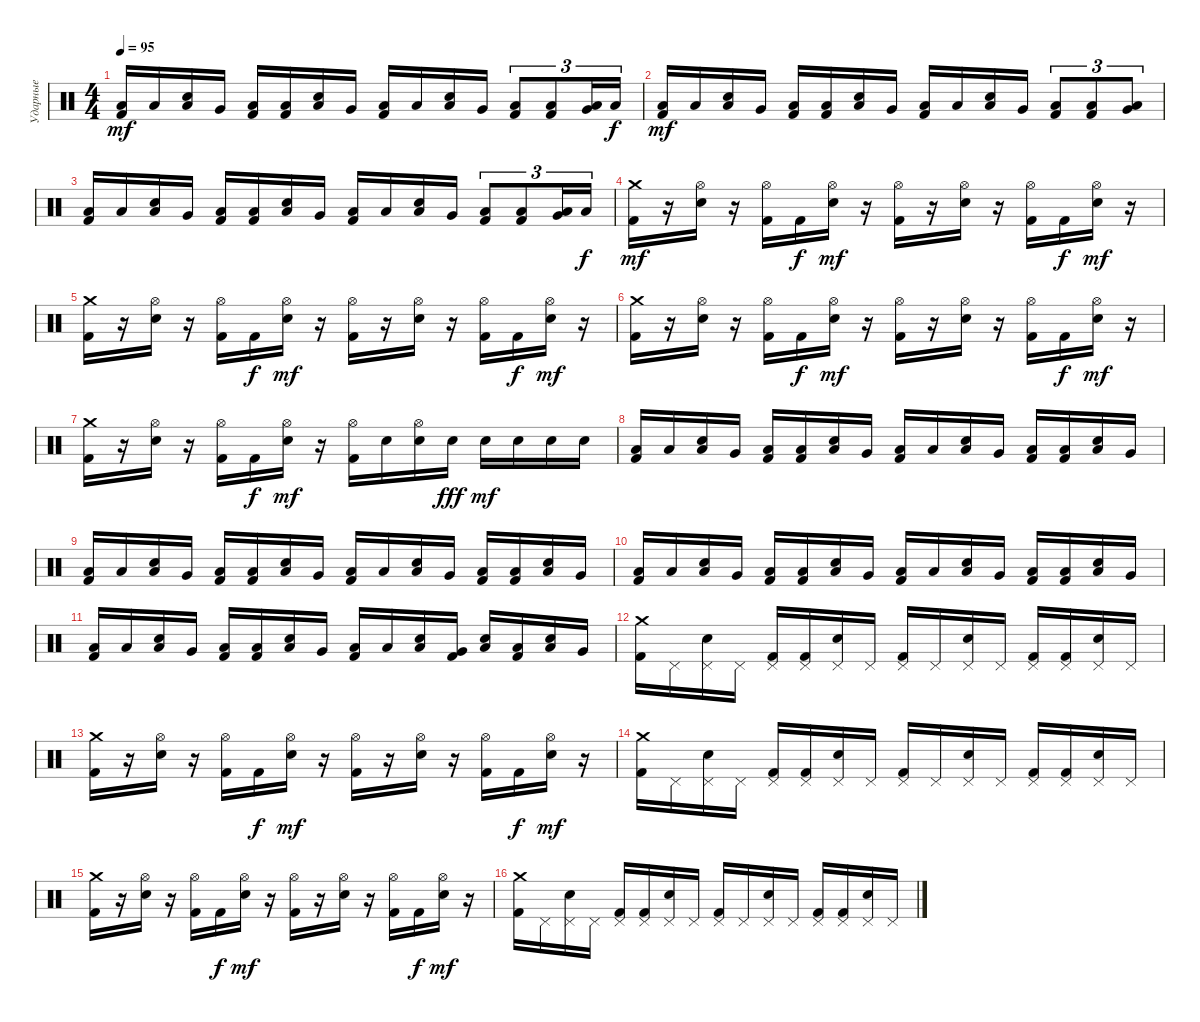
\track ("Ударные" "Ударные") {instrument percussion}
\staff {score}
\articulation defaults
\ts (4 4)
\tempo 95
\clef neutral
\ks c
("Low Floor Tom (hit)" "Kick (hit) 2").16{dy mf} "Low Floor Tom (hit)".16 ("Low Floor Tom (hit)" "Electric Snare (hit)").16 "Very Low Tom (hit)".16 ("Low Floor Tom (hit)" "Kick (hit) 2").16 ("Low Floor Tom (hit)" "Kick (hit) 2").16 ("Low Floor Tom (hit)" "Electric Snare (hit)").16 "Very Low Tom (hit)".16 ("Low Floor Tom (hit)" "Kick (hit) 2").16 "Low Floor Tom (hit)".16 ("Low Floor Tom (hit)" "Electric Snare (hit)").16 "Very Low Tom (hit)".16 ("Low Floor Tom (hit)" "Kick (hit) 2").8{tu (3 2)} ("Low Floor Tom (hit)" "Kick (hit) 2").8{tu (3 2)} ("Low Floor Tom (hit)" "Very Low Tom (hit)").16{tu (3 2)} "Low Floor Tom (hit)".16{tu (3 2) dy f} |
("Low Floor Tom (hit)" "Kick (hit) 2").16{dy mf} "Low Floor Tom (hit)".16 ("Low Floor Tom (hit)" "Electric Snare (hit)").16 "Very Low Tom (hit)".16 ("Low Floor Tom (hit)" "Kick (hit) 2").16 ("Low Floor Tom (hit)" "Kick (hit) 2").16 ("Low Floor Tom (hit)" "Electric Snare (hit)").16 "Very Low Tom (hit)".16 ("Low Floor Tom (hit)" "Kick (hit) 2").16 "Low Floor Tom (hit)".16 ("Low Floor Tom (hit)" "Electric Snare (hit)").16 "Very Low Tom (hit)".16 ("Low Floor Tom (hit)" "Kick (hit) 2").8{tu (3 2)} ("Low Floor Tom (hit)" "Kick (hit) 2").8{tu (3 2)} ("Low Floor Tom (hit)" "Very Low Tom (hit)").8{tu (3 2)} |
("Low Floor Tom (hit)" "Kick (hit) 2").16 "Low Floor Tom (hit)".16 ("Low Floor Tom (hit)" "Electric Snare (hit)").16 "Very Low Tom (hit)".16 ("Low Floor Tom (hit)" "Kick (hit) 2").16 ("Low Floor Tom (hit)" "Kick (hit) 2").16 ("Low Floor Tom (hit)" "Electric Snare (hit)").16 "Very Low Tom (hit)".16 ("Low Floor Tom (hit)" "Kick (hit) 2").16 "Low Floor Tom (hit)".16 ("Low Floor Tom (hit)" "Electric Snare (hit)").16 "Very Low Tom (hit)".16 ("Low Floor Tom (hit)" "Kick (hit) 2").8{tu (3 2)} ("Low Floor Tom (hit)" "Kick (hit) 2").8{tu (3 2)} ("Low Floor Tom (hit)" "Very Low Tom (hit)").16{tu (3 2)} "Low Floor Tom (hit)".16{tu (3 2) dy f} |
("Crash medium (hit)" "Kick (hit) 2").16{dy mf} r.16 ("Hi-Hat (open)" "Electric Snare (hit)").16 r.16 ("Hi-Hat (open)" "Kick (hit) 2").16 "Kick (hit) 2".16{dy f} ("Hi-Hat (open)" "Electric Snare (hit)").16{dy mf} r.16 ("Hi-Hat (open)" "Kick (hit) 2").16 r.16 ("Hi-Hat (open)" "Electric Snare (hit)").16 r.16 ("Hi-Hat (open)" "Kick (hit) 2").16 "Kick (hit) 2".16{dy f} ("Hi-Hat (open)" "Electric Snare (hit)").16{dy mf} r.16 |
("Crash medium (hit)" "Kick (hit) 2").16 r.16 ("Hi-Hat (open)" "Electric Snare (hit)").16 r.16 ("Hi-Hat (open)" "Kick (hit) 2").16 "Kick (hit) 2".16{dy f} ("Hi-Hat (open)" "Electric Snare (hit)").16{dy mf} r.16 ("Hi-Hat (open)" "Kick (hit) 2").16 r.16 ("Hi-Hat (open)" "Electric Snare (hit)").16 r.16 ("Hi-Hat (open)" "Kick (hit) 2").16 "Kick (hit) 2".16{dy f} ("Hi-Hat (open)" "Electric Snare (hit)").16{dy mf} r.16 |
("Crash medium (hit)" "Kick (hit) 2").16 r.16 ("Hi-Hat (open)" "Electric Snare (hit)").16 r.16 ("Hi-Hat (open)" "Kick (hit) 2").16 "Kick (hit) 2".16{dy f} ("Hi-Hat (open)" "Electric Snare (hit)").16{dy mf} r.16 ("Hi-Hat (open)" "Kick (hit) 2").16 r.16 ("Hi-Hat (open)" "Electric Snare (hit)").16 r.16 ("Hi-Hat (open)" "Kick (hit) 2").16 "Kick (hit) 2".16{dy f} ("Hi-Hat (open)" "Electric Snare (hit)").16{dy mf} r.16 |
("Crash medium (hit)" "Kick (hit) 2").16 r.16 ("Hi-Hat (open)" "Electric Snare (hit)").16 r.16 ("Hi-Hat (open)" "Kick (hit) 2").16 "Kick (hit) 2".16{dy f} ("Hi-Hat (open)" "Electric Snare (hit)").16{dy mf} r.16 ("Hi-Hat (open)" "Kick (hit) 2").16 "Electric Snare (hit)".16 ("Hi-Hat (open)" "Electric Snare (hit)").16 "Electric Snare (hit)".16{dy fff} "Electric Snare (hit)".16{dy mf} "Electric Snare (hit)".16 "Electric Snare (hit)".16 "Electric Snare (hit)".16 |
("Low Floor Tom (hit)" "Kick (hit) 2").16 "Low Floor Tom (hit)".16 ("Low Floor Tom (hit)" "Electric Snare (hit)").16 "Very Low Tom (hit)".16 ("Low Floor Tom (hit)" "Kick (hit) 2").16 ("Low Floor Tom (hit)" "Kick (hit) 2").16 ("Low Floor Tom (hit)" "Electric Snare (hit)").16 "Very Low Tom (hit)".16 ("Low Floor Tom (hit)" "Kick (hit) 2").16 "Low Floor Tom (hit)".16 ("Low Floor Tom (hit)" "Electric Snare (hit)").16 "Very Low Tom (hit)".16 ("Low Floor Tom (hit)" "Kick (hit) 2").16 ("Low Floor Tom (hit)" "Kick (hit) 2").16 ("Low Floor Tom (hit)" "Electric Snare (hit)").16 "Very Low Tom (hit)".16 |
("Low Floor Tom (hit)" "Kick (hit) 2").16 "Low Floor Tom (hit)".16 ("Low Floor Tom (hit)" "Electric Snare (hit)").16 "Very Low Tom (hit)".16 ("Low Floor Tom (hit)" "Kick (hit) 2").16 ("Low Floor Tom (hit)" "Kick (hit) 2").16 ("Low Floor Tom (hit)" "Electric Snare (hit)").16 "Very Low Tom (hit)".16 ("Low Floor Tom (hit)" "Kick (hit) 2").16 "Low Floor Tom (hit)".16 ("Low Floor Tom (hit)" "Electric Snare (hit)").16 "Very Low Tom (hit)".16 ("Low Floor Tom (hit)" "Kick (hit) 2").16 ("Low Floor Tom (hit)" "Kick (hit) 2").16 ("Low Floor Tom (hit)" "Electric Snare (hit)").16 "Very Low Tom (hit)".16 |
("Low Floor Tom (hit)" "Kick (hit) 2").16 "Low Floor Tom (hit)".16 ("Low Floor Tom (hit)" "Electric Snare (hit)").16 "Very Low Tom (hit)".16 ("Low Floor Tom (hit)" "Kick (hit) 2").16 ("Low Floor Tom (hit)" "Kick (hit) 2").16 ("Low Floor Tom (hit)" "Electric Snare (hit)").16 "Very Low Tom (hit)".16 ("Low Floor Tom (hit)" "Kick (hit) 2").16 "Low Floor Tom (hit)".16 ("Low Floor Tom (hit)" "Electric Snare (hit)").16 "Very Low Tom (hit)".16 ("Low Floor Tom (hit)" "Kick (hit) 2").16 ("Low Floor Tom (hit)" "Kick (hit) 2").16 ("Low Floor Tom (hit)" "Electric Snare (hit)").16 "Very Low Tom (hit)".16 |
("Low Floor Tom (hit)" "Kick (hit) 2").16 "Low Floor Tom (hit)".16 ("Low Floor Tom (hit)" "Electric Snare (hit)").16 "Very Low Tom (hit)".16 ("Low Floor Tom (hit)" "Kick (hit) 2").16 ("Low Floor Tom (hit)" "Kick (hit) 2").16 ("Low Floor Tom (hit)" "Electric Snare (hit)").16 "Very Low Tom (hit)".16 ("Low Floor Tom (hit)" "Kick (hit) 2").16 "Low Floor Tom (hit)".16 ("Low Floor Tom (hit)" "Electric Snare (hit)").16 ("Very Low Tom (hit)" "Kick (hit) 2").16 ("Low Floor Tom (hit)" "Electric Snare (hit)").16 ("Low Floor Tom (hit)" "Kick (hit) 2").16 ("Low Floor Tom (hit)" "Electric Snare (hit)").16 "Very Low Tom (hit)".16 |
("Crash medium (hit)" "Kick (hit) 2").16 "Pedal Hi-Hat (hit)".16 ("Pedal Hi-Hat (hit)" "Electric Snare (hit)").16 "Pedal Hi-Hat (hit)".16 ("Pedal Hi-Hat (hit)" "Kick (hit) 2").16 ("Pedal Hi-Hat (hit)" "Kick (hit) 2").16 ("Pedal Hi-Hat (hit)" "Electric Snare (hit)").16 "Pedal Hi-Hat (hit)".16 ("Pedal Hi-Hat (hit)" "Kick (hit) 2").16 "Pedal Hi-Hat (hit)".16 ("Pedal Hi-Hat (hit)" "Electric Snare (hit)").16 "Pedal Hi-Hat (hit)".16 ("Pedal Hi-Hat (hit)" "Kick (hit) 2").16 ("Pedal Hi-Hat (hit)" "Kick (hit) 2").16 ("Pedal Hi-Hat (hit)" "Electric Snare (hit)").16 "Pedal Hi-Hat (hit)".16 |
("Crash medium (hit)" "Kick (hit) 2").16 r.16 ("Hi-Hat (open)" "Electric Snare (hit)").16 r.16 ("Hi-Hat (open)" "Kick (hit) 2").16 "Kick (hit) 2".16{dy f} ("Hi-Hat (open)" "Electric Snare (hit)").16{dy mf} r.16 ("Hi-Hat (open)" "Kick (hit) 2").16 r.16 ("Hi-Hat (open)" "Electric Snare (hit)").16 r.16 ("Hi-Hat (open)" "Kick (hit) 2").16 "Kick (hit) 2".16{dy f} ("Hi-Hat (open)" "Electric Snare (hit)").16{dy mf} r.16 |
("Crash medium (hit)" "Kick (hit) 2").16 "Pedal Hi-Hat (hit)".16 ("Pedal Hi-Hat (hit)" "Electric Snare (hit)").16 "Pedal Hi-Hat (hit)".16 ("Pedal Hi-Hat (hit)" "Kick (hit) 2").16 ("Pedal Hi-Hat (hit)" "Kick (hit) 2").16 ("Pedal Hi-Hat (hit)" "Electric Snare (hit)").16 "Pedal Hi-Hat (hit)".16 ("Pedal Hi-Hat (hit)" "Kick (hit) 2").16 "Pedal Hi-Hat (hit)".16 ("Pedal Hi-Hat (hit)" "Electric Snare (hit)").16 "Pedal Hi-Hat (hit)".16 ("Pedal Hi-Hat (hit)" "Kick (hit) 2").16 ("Pedal Hi-Hat (hit)" "Kick (hit) 2").16 ("Pedal Hi-Hat (hit)" "Electric Snare (hit)").16 "Pedal Hi-Hat (hit)".16 |
("Crash medium (hit)" "Kick (hit) 2").16 r.16 ("Hi-Hat (open)" "Electric Snare (hit)").16 r.16 ("Hi-Hat (open)" "Kick (hit) 2").16 "Kick (hit) 2".16{dy f} ("Hi-Hat (open)" "Electric Snare (hit)").16{dy mf} r.16 ("Hi-Hat (open)" "Kick (hit) 2").16 r.16 ("Hi-Hat (open)" "Electric Snare (hit)").16 r.16 ("Hi-Hat (open)" "Kick (hit) 2").16 "Kick (hit) 2".16{dy f} ("Hi-Hat (open)" "Electric Snare (hit)").16{dy mf} r.16 |
("Crash medium (hit)" "Kick (hit) 2").16 "Pedal Hi-Hat (hit)".16 ("Pedal Hi-Hat (hit)" "Electric Snare (hit)").16 "Pedal Hi-Hat (hit)".16 ("Pedal Hi-Hat (hit)" "Kick (hit) 2").16 ("Pedal Hi-Hat (hit)" "Kick (hit) 2").16 ("Pedal Hi-Hat (hit)" "Electric Snare (hit)").16 "Pedal Hi-Hat (hit)".16 ("Pedal Hi-Hat (hit)" "Kick (hit) 2").16 "Pedal Hi-Hat (hit)".16 ("Pedal Hi-Hat (hit)" "Electric Snare (hit)").16 "Pedal Hi-Hat (hit)".16 ("Pedal Hi-Hat (hit)" "Kick (hit) 2").16 ("Pedal Hi-Hat (hit)" "Kick (hit) 2").16 ("Pedal Hi-Hat (hit)" "Electric Snare (hit)").16 "Pedal Hi-Hat (hit)".16
